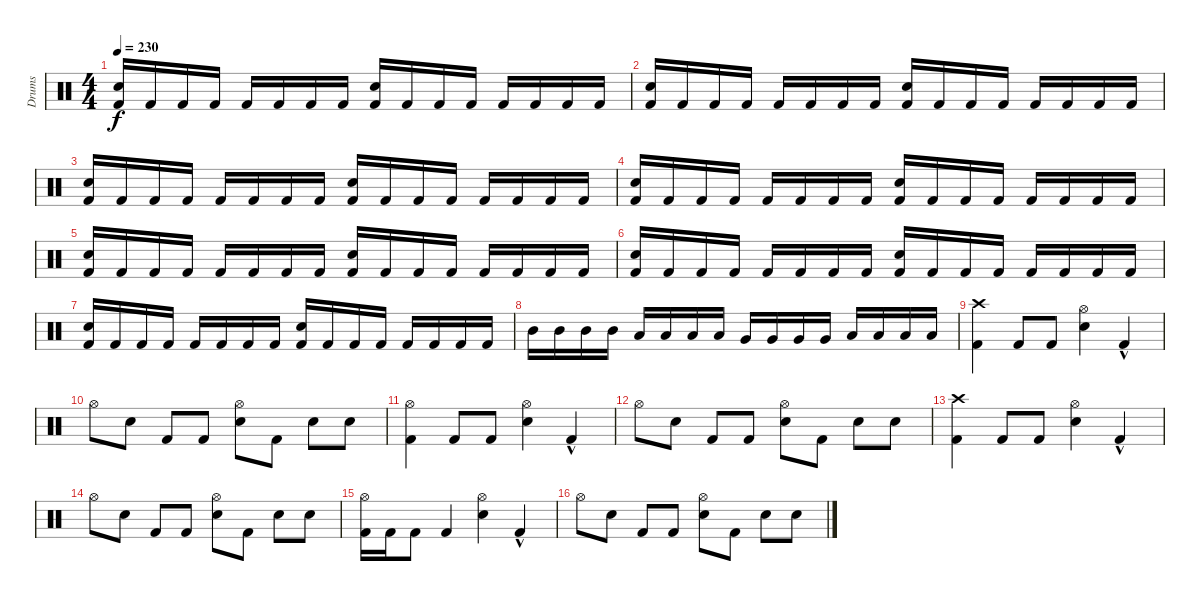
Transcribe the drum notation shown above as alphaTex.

\track ("Drums" "Drums") {instrument percussion}
\staff {score}
\articulation defaults
\ts (4 4)
\tempo 230
\clef neutral
\ks c
("Electric Snare (hit)" "Kick (hit) 2").16{dy f} "Kick (hit) 2".16 "Kick (hit) 2".16 "Kick (hit) 2".16 "Kick (hit) 2".16 "Kick (hit) 2".16 "Kick (hit) 2".16 "Kick (hit) 2".16 ("Electric Snare (hit)" "Kick (hit) 2").16 "Kick (hit) 2".16 "Kick (hit) 2".16 "Kick (hit) 2".16 "Kick (hit) 2".16 "Kick (hit) 2".16 "Kick (hit) 2".16 "Kick (hit) 2".16 |
("Electric Snare (hit)" "Kick (hit) 2").16 "Kick (hit) 2".16 "Kick (hit) 2".16 "Kick (hit) 2".16 "Kick (hit) 2".16 "Kick (hit) 2".16 "Kick (hit) 2".16 "Kick (hit) 2".16 ("Electric Snare (hit)" "Kick (hit) 2").16 "Kick (hit) 2".16 "Kick (hit) 2".16 "Kick (hit) 2".16 "Kick (hit) 2".16 "Kick (hit) 2".16 "Kick (hit) 2".16 "Kick (hit) 2".16 |
("Electric Snare (hit)" "Kick (hit) 2").16 "Kick (hit) 2".16 "Kick (hit) 2".16 "Kick (hit) 2".16 "Kick (hit) 2".16 "Kick (hit) 2".16 "Kick (hit) 2".16 "Kick (hit) 2".16 ("Electric Snare (hit)" "Kick (hit) 2").16 "Kick (hit) 2".16 "Kick (hit) 2".16 "Kick (hit) 2".16 "Kick (hit) 2".16 "Kick (hit) 2".16 "Kick (hit) 2".16 "Kick (hit) 2".16 |
("Electric Snare (hit)" "Kick (hit) 2").16 "Kick (hit) 2".16 "Kick (hit) 2".16 "Kick (hit) 2".16 "Kick (hit) 2".16 "Kick (hit) 2".16 "Kick (hit) 2".16 "Kick (hit) 2".16 ("Electric Snare (hit)" "Kick (hit) 2").16 "Kick (hit) 2".16 "Kick (hit) 2".16 "Kick (hit) 2".16 "Kick (hit) 2".16 "Kick (hit) 2".16 "Kick (hit) 2".16 "Kick (hit) 2".16 |
("Electric Snare (hit)" "Kick (hit) 2").16 "Kick (hit) 2".16 "Kick (hit) 2".16 "Kick (hit) 2".16 "Kick (hit) 2".16 "Kick (hit) 2".16 "Kick (hit) 2".16 "Kick (hit) 2".16 ("Electric Snare (hit)" "Kick (hit) 2").16 "Kick (hit) 2".16 "Kick (hit) 2".16 "Kick (hit) 2".16 "Kick (hit) 2".16 "Kick (hit) 2".16 "Kick (hit) 2".16 "Kick (hit) 2".16 |
("Electric Snare (hit)" "Kick (hit) 2").16 "Kick (hit) 2".16 "Kick (hit) 2".16 "Kick (hit) 2".16 "Kick (hit) 2".16 "Kick (hit) 2".16 "Kick (hit) 2".16 "Kick (hit) 2".16 ("Electric Snare (hit)" "Kick (hit) 2").16 "Kick (hit) 2".16 "Kick (hit) 2".16 "Kick (hit) 2".16 "Kick (hit) 2".16 "Kick (hit) 2".16 "Kick (hit) 2".16 "Kick (hit) 2".16 |
("Electric Snare (hit)" "Kick (hit) 2").16 "Kick (hit) 2".16 "Kick (hit) 2".16 "Kick (hit) 2".16 "Kick (hit) 2".16 "Kick (hit) 2".16 "Kick (hit) 2".16 "Kick (hit) 2".16 ("Electric Snare (hit)" "Kick (hit) 2").16 "Kick (hit) 2".16 "Kick (hit) 2".16 "Kick (hit) 2".16 "Kick (hit) 2".16 "Kick (hit) 2".16 "Kick (hit) 2".16 "Kick (hit) 2".16 |
"Mid Tom (hit)".16 "Mid Tom (hit)".16 "Mid Tom (hit)".16 "Mid Tom (hit)".16 "Low Tom (hit)".16 "Low Tom (hit)".16 "Low Tom (hit)".16 "Low Tom (hit)".16 "Very Low Tom (hit)".16 "Very Low Tom (hit)".16 "Very Low Tom (hit)".16 "Very Low Tom (hit)".16 "Low Floor Tom (hit)".16 "Low Floor Tom (hit)".16 "Low Floor Tom (hit)".16 "Low Floor Tom (hit)".16 |
("Crash high (hit)" "Kick (hit) 2").4 "Kick (hit) 2".8 "Kick (hit) 2".8 ("Hi-Hat (open)" "Electric Snare (hit)").4 "Kick (hit) 2"{hac}.4 |
"Hi-Hat (open)".8 "Electric Snare (hit)".8 "Kick (hit) 2".8 "Kick (hit) 2".8 ("Hi-Hat (open)" "Electric Snare (hit)").8 "Kick (hit) 2".8 "Electric Snare (hit)".8 "Electric Snare (hit)".8 |
("Hi-Hat (open)" "Kick (hit) 2").4 "Kick (hit) 2".8 "Kick (hit) 2".8 ("Hi-Hat (open)" "Electric Snare (hit)").4 "Kick (hit) 2"{hac}.4 |
"Hi-Hat (open)".8 "Electric Snare (hit)".8 "Kick (hit) 2".8 "Kick (hit) 2".8 ("Hi-Hat (open)" "Electric Snare (hit)").8 "Kick (hit) 2".8 "Electric Snare (hit)".8 "Electric Snare (hit)".8 |
("Crash high (hit)" "Kick (hit) 2").4 "Kick (hit) 2".8 "Kick (hit) 2".8 ("Hi-Hat (open)" "Electric Snare (hit)").4 "Kick (hit) 2"{hac}.4 |
"Hi-Hat (open)".8 "Electric Snare (hit)".8 "Kick (hit) 2".8 "Kick (hit) 2".8 ("Hi-Hat (open)" "Electric Snare (hit)").8 "Kick (hit) 2".8 "Electric Snare (hit)".8 "Electric Snare (hit)".8 |
("Hi-Hat (open)" "Kick (hit) 2").16 "Kick (hit) 2".16 "Kick (hit) 2".8 "Kick (hit) 2".4 ("Hi-Hat (open)" "Electric Snare (hit)").4 "Kick (hit) 2"{hac}.4 |
"Hi-Hat (open)".8 "Electric Snare (hit)".8 "Kick (hit) 2".8 "Kick (hit) 2".8 ("Hi-Hat (open)" "Electric Snare (hit)").8 "Kick (hit) 2".8 "Electric Snare (hit)".8 "Electric Snare (hit)".8
